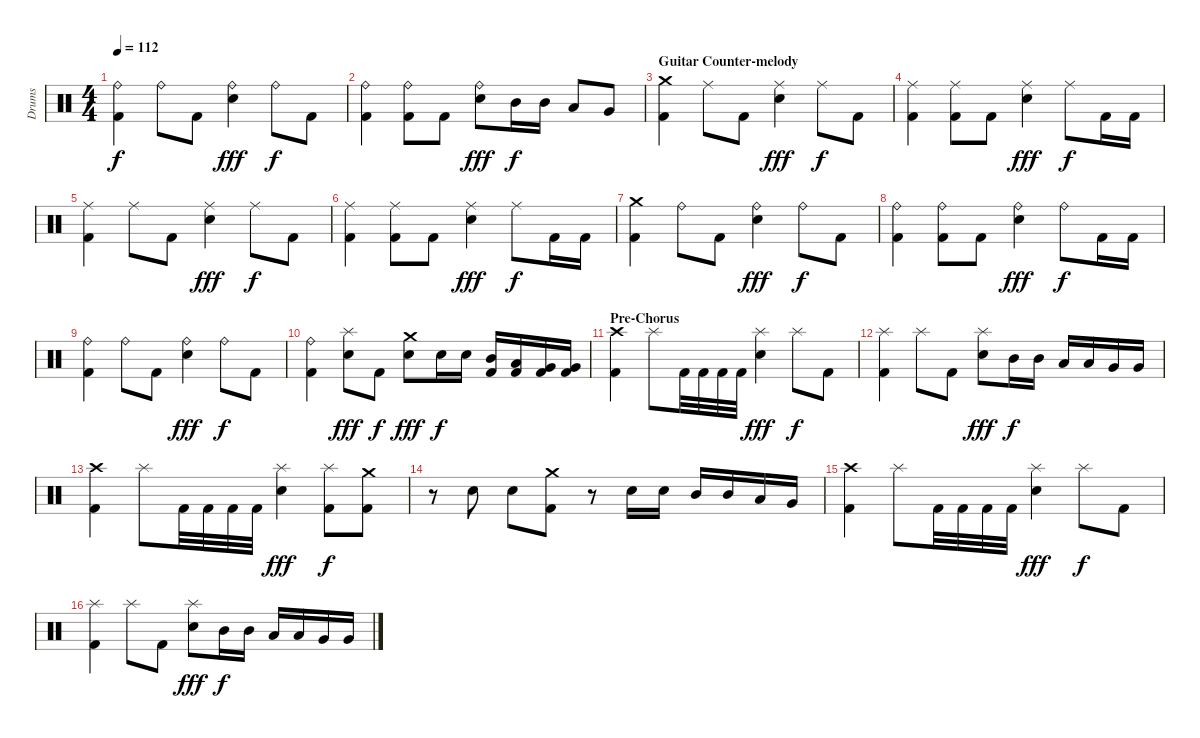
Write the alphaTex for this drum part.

\track ("Drums" "Drums") {instrument percussion}
\staff {score}
\articulation defaults
\ts (4 4)
\tempo 112
\clef neutral
\ks c
("Ride (bell)" "Kick (hit) 2").4{dy f} "Ride (bell)".8 "Kick (hit) 2".8 ("Ride (bell)" "Snare (hit) 2").4{dy fff} "Ride (bell)".8{dy f} "Kick (hit) 2".8 |
("Ride (bell)" "Kick (hit) 2").4 ("Ride (bell)" "Kick (hit) 2").8 "Kick (hit) 2".8 ("Ride (bell)" "Snare (hit) 2").8{dy fff} "Mid Tom (hit)".16{dy f} "Mid Tom (hit)".16 "Low Tom (hit)".8 "Very Low Tom (hit)".8 |
\section ("" "Guitar Counter-melody")
("Crash medium (hit)" "Kick (hit) 2").4 "Ride (middle)".8 "Kick (hit) 2".8 ("Ride (middle)" "Snare (hit) 2").4{dy fff} "Ride (middle)".8{dy f} "Kick (hit) 2".8 |
("Ride (middle)" "Kick (hit) 2").4 ("Ride (middle)" "Kick (hit) 2").8 "Kick (hit) 2".8 ("Ride (middle)" "Snare (hit) 2").4{dy fff} "Ride (middle)".8{dy f} "Kick (hit) 2".16 "Kick (hit) 2".16 |
("Ride (middle)" "Kick (hit) 2").4 "Ride (middle)".8 "Kick (hit) 2".8 ("Ride (middle)" "Snare (hit) 2").4{dy fff} "Ride (middle)".8{dy f} "Kick (hit) 2".8 |
("Ride (middle)" "Kick (hit) 2").4 ("Ride (middle)" "Kick (hit) 2").8 "Kick (hit) 2".8 ("Ride (middle)" "Snare (hit) 2").4{dy fff} "Ride (middle)".8{dy f} "Kick (hit) 2".16 "Kick (hit) 2".16 |
("Crash medium (hit)" "Kick (hit) 2").4 "Ride (bell)".8 "Kick (hit) 2".8 ("Ride (bell)" "Snare (hit) 2").4{dy fff} "Ride (bell)".8{dy f} "Kick (hit) 2".8 |
("Ride (bell)" "Kick (hit) 2").4 ("Ride (bell)" "Kick (hit) 2").8 "Kick (hit) 2".8 ("Ride (bell)" "Snare (hit) 2").4{dy fff} "Ride (bell)".8{dy f} "Kick (hit) 2".16 "Kick (hit) 2".16 |
("Ride (bell)" "Kick (hit) 2").4 "Ride (bell)".8 "Kick (hit) 2".8 ("Ride (bell)" "Snare (hit) 2").4{dy fff} "Ride (bell)".8{dy f} "Kick (hit) 2".8 |
("Ride (bell)" "Kick (hit) 2").4 ("Splash (hit)" "Snare (hit) 2").8{dy fff} "Kick (hit) 2".8{dy f} ("Crash medium (hit)" "Snare (hit) 2").8{dy fff} "Snare (hit) 2".16{dy f} "Snare (hit) 2".16 ("Mid Tom (hit)" "Kick (hit) 2").16 ("Low Tom (hit)" "Kick (hit) 2").16 ("Very Low Tom (hit)" "Kick (hit) 2").16 ("Very Low Tom (hit)" "Kick (hit) 2").16 |
\section ("" "Pre-Chorus")
("Crash high (hit)" "Kick (hit) 2").4 "Splash (hit)".8 "Kick (hit) 2".32 "Kick (hit) 2".32 "Kick (hit) 2".32 "Kick (hit) 2".32 ("Splash (hit)" "Snare (hit) 2").4{dy fff} "Splash (hit)".8{dy f} "Kick (hit) 2".8 |
("Splash (hit)" "Kick (hit) 2").4 "Splash (hit)".8 "Kick (hit) 2".8 ("Splash (hit)" "Snare (hit) 2").8{dy fff} "Mid Tom (hit)".16{dy f} "Mid Tom (hit)".16 "Low Tom (hit)".16 "Low Tom (hit)".16 "Very Low Tom (hit)".16 "Very Low Tom (hit)".16 |
("Crash high (hit)" "Kick (hit) 2").4 "Splash (hit)".8 "Kick (hit) 2".32 "Kick (hit) 2".32 "Kick (hit) 2".32 "Kick (hit) 2".32 ("Splash (hit)" "Snare (hit) 2").4{dy fff} ("Splash (hit)" "Kick (hit) 2").8{dy f} ("Crash medium (hit)" "Kick (hit) 2").8 |
r.8 "Snare (hit) 2".8 "Snare (hit) 2".8 ("Crash medium (hit)" "Kick (hit) 2").8 r.8 "Snare (hit) 2".16 "Snare (hit) 2".16 "Mid Tom (hit)".16 "Mid Tom (hit)".16 "Low Tom (hit)".16 "Very Low Tom (hit)".16 |
("Crash high (hit)" "Kick (hit) 2").4 "Splash (hit)".8 "Kick (hit) 2".32 "Kick (hit) 2".32 "Kick (hit) 2".32 "Kick (hit) 2".32 ("Splash (hit)" "Snare (hit) 2").4{dy fff} "Splash (hit)".8{dy f} "Kick (hit) 2".8 |
("Splash (hit)" "Kick (hit) 2").4 "Splash (hit)".8 "Kick (hit) 2".8 ("Splash (hit)" "Snare (hit) 2").8{dy fff} "Mid Tom (hit)".16{dy f} "Mid Tom (hit)".16 "Low Tom (hit)".16 "Low Tom (hit)".16 "Very Low Tom (hit)".16 "Very Low Tom (hit)".16
